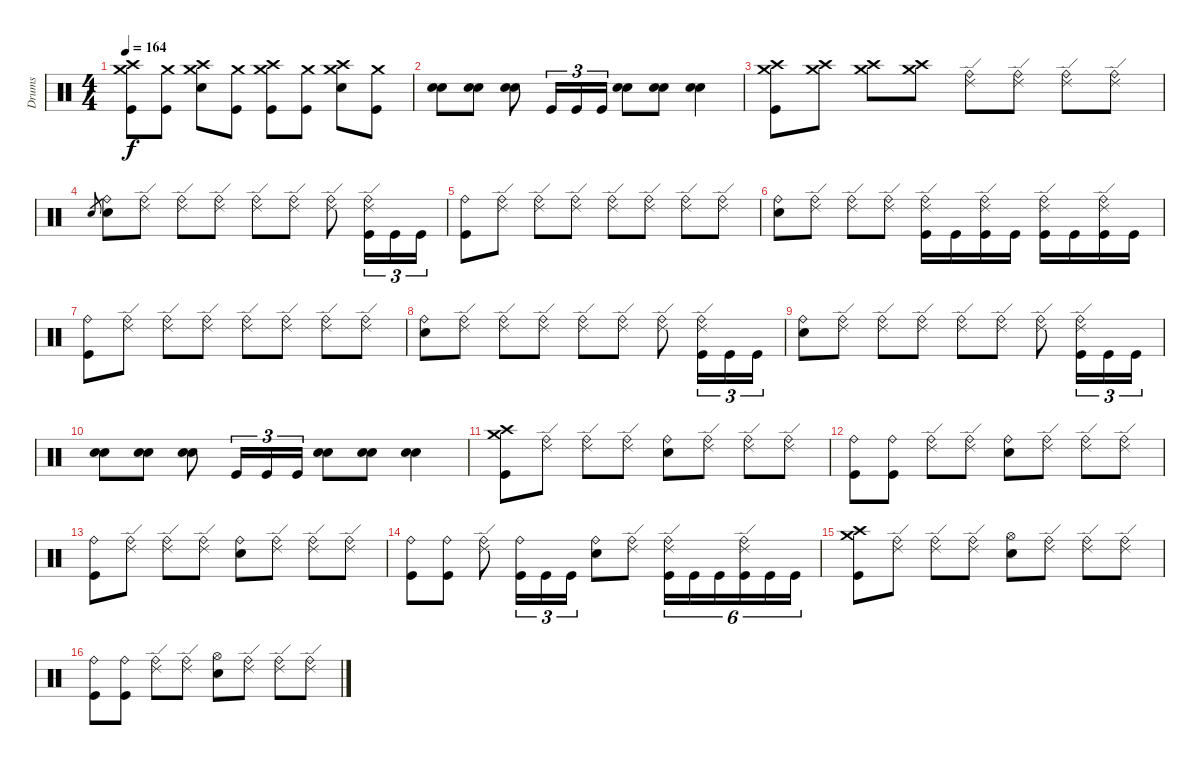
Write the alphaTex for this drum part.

\track ("Drums" "Drums") {instrument percussion}
\staff {score}
\articulation defaults
\ts (4 4)
\tempo 164
\clef neutral
\ks c
("Crash medium (hit)" "Kick (hit)" "Crash high (hit)").8{dy f} ("Crash medium (hit)" "Kick (hit)").8 ("Snare (hit) 2" "Crash medium (hit)" "Crash high (hit)").8 ("Crash medium (hit)" "Kick (hit)").8 ("Crash medium (hit)" "Kick (hit)" "Crash high (hit)").8 ("Crash medium (hit)" "Kick (hit)").8 ("Snare (hit) 2" "Crash medium (hit)" "Crash high (hit)").8 ("Crash medium (hit)" "Kick (hit)").8 |
("Snare (hit) 2" "Snare (hit) 2").8 ("Snare (hit) 2" "Snare (hit) 2").8 ("Snare (hit) 2" "Snare (hit) 2").8 "Kick (hit)".16{tu (3 2)} "Kick (hit)".16{tu (3 2)} "Kick (hit)".16{tu (3 2)} ("Snare (hit) 2" "Snare (hit) 2").8 ("Snare (hit) 2" "Snare (hit) 2").8 ("Snare (hit) 2" "Snare (hit) 2").4 |
("Crash medium (hit)" "Crash high (hit)" "Kick (hit)").8 ("Crash medium (hit)" "Crash high (hit)").8 ("Crash medium (hit)" "Crash high (hit)").8 ("Crash medium (hit)" "Crash high (hit)").8 ("Ride (edge) 2" "Ride (bell)").8 ("Ride (edge) 2" "Ride (bell)").8 ("Ride (edge) 2" "Ride (bell)").8 ("Ride (edge) 2" "Ride (bell)").8 |
"Snare (hit) 2".8{gr} ("Snare (hit) 2" "Ride (bell)").8 ("Ride (edge) 2" "Ride (bell)").8 ("Ride (edge) 2" "Ride (bell)").8 ("Ride (edge) 2" "Ride (bell)").8 ("Ride (edge) 2" "Ride (bell)").8 ("Ride (edge) 2" "Ride (bell)").8 ("Ride (edge) 2" "Ride (bell)").8 ("Ride (edge) 2" "Ride (bell)" "Kick (hit)").16{tu (3 2)} "Kick (hit)".16{tu (3 2)} "Kick (hit)".16{tu (3 2)} |
("Ride (bell)" "Kick (hit)").8 ("Ride (edge) 2" "Ride (bell)").8 ("Ride (edge) 2" "Ride (bell)").8 ("Ride (edge) 2" "Ride (bell)").8 ("Ride (edge) 2" "Ride (bell)").8 ("Ride (edge) 2" "Ride (bell)").8 ("Ride (edge) 2" "Ride (bell)").8 ("Ride (edge) 2" "Ride (bell)").8 |
("Snare (hit) 2" "Ride (bell)").8 ("Ride (edge) 2" "Ride (bell)").8 ("Ride (edge) 2" "Ride (bell)").8 ("Ride (edge) 2" "Ride (bell)").8 ("Ride (edge) 2" "Ride (bell)" "Kick (hit)").16 "Kick (hit)".16 ("Ride (edge) 2" "Ride (bell)" "Kick (hit)").16 "Kick (hit)".16 ("Ride (edge) 2" "Ride (bell)" "Kick (hit)").16 "Kick (hit)".16 ("Ride (edge) 2" "Ride (bell)" "Kick (hit)").16 "Kick (hit)".16 |
("Ride (bell)" "Kick (hit)").8 ("Ride (edge) 2" "Ride (bell)").8 ("Ride (edge) 2" "Ride (bell)").8 ("Ride (edge) 2" "Ride (bell)").8 ("Ride (edge) 2" "Ride (bell)").8 ("Ride (edge) 2" "Ride (bell)").8 ("Ride (edge) 2" "Ride (bell)").8 ("Ride (edge) 2" "Ride (bell)").8 |
("Snare (hit) 2" "Ride (bell)").8 ("Ride (edge) 2" "Ride (bell)").8 ("Ride (edge) 2" "Ride (bell)").8 ("Ride (edge) 2" "Ride (bell)").8 ("Ride (edge) 2" "Ride (bell)").8 ("Ride (edge) 2" "Ride (bell)").8 ("Ride (edge) 2" "Ride (bell)").8 ("Ride (edge) 2" "Ride (bell)" "Kick (hit)").16{tu (3 2)} "Kick (hit)".16{tu (3 2)} "Kick (hit)".16{tu (3 2)} |
("Snare (hit) 2" "Ride (bell)").8 ("Ride (edge) 2" "Ride (bell)").8 ("Ride (edge) 2" "Ride (bell)").8 ("Ride (edge) 2" "Ride (bell)").8 ("Ride (edge) 2" "Ride (bell)").8 ("Ride (edge) 2" "Ride (bell)").8 ("Ride (edge) 2" "Ride (bell)").8 ("Ride (edge) 2" "Ride (bell)" "Kick (hit)").16{tu (3 2)} "Kick (hit)".16{tu (3 2)} "Kick (hit)".16{tu (3 2)} |
("Snare (hit) 2" "Snare (hit) 2").8 ("Snare (hit) 2" "Snare (hit) 2").8 ("Snare (hit) 2" "Snare (hit) 2").8 "Kick (hit)".16{tu (3 2)} "Kick (hit)".16{tu (3 2)} "Kick (hit)".16{tu (3 2)} ("Snare (hit) 2" "Snare (hit) 2").8 ("Snare (hit) 2" "Snare (hit) 2").8 ("Snare (hit) 2" "Snare (hit) 2").4 |
("Crash high (hit)" "Kick (hit)" "Crash medium (hit)").8 ("Ride (edge) 2" "Ride (bell)").8 ("Ride (edge) 2" "Ride (bell)").8 ("Ride (edge) 2" "Ride (bell)").8 ("Snare (hit) 2" "Ride (bell)").8 ("Ride (edge) 2" "Ride (bell)").8 ("Ride (edge) 2" "Ride (bell)").8 ("Ride (edge) 2" "Ride (bell)").8 |
("Ride (bell)" "Kick (hit)").8 ("Ride (bell)" "Kick (hit)").8 ("Ride (edge) 2" "Ride (bell)").8 ("Ride (edge) 2" "Ride (bell)").8 ("Snare (hit) 2" "Ride (bell)").8 ("Ride (edge) 2" "Ride (bell)").8 ("Ride (edge) 2" "Ride (bell)").8 ("Ride (edge) 2" "Ride (bell)").8 |
("Ride (bell)" "Kick (hit)").8 ("Ride (edge) 2" "Ride (bell)").8 ("Ride (edge) 2" "Ride (bell)").8 ("Ride (edge) 2" "Ride (bell)").8 ("Snare (hit) 2" "Ride (bell)").8 ("Ride (edge) 2" "Ride (bell)").8 ("Ride (edge) 2" "Ride (bell)").8 ("Ride (edge) 2" "Ride (bell)").8 |
("Ride (bell)" "Kick (hit)").8 ("Ride (bell)" "Kick (hit)").8 ("Ride (edge) 2" "Ride (bell)").8 ("Ride (bell)" "Kick (hit)").16{tu (3 2)} "Kick (hit)".16{tu (3 2)} "Kick (hit)".16{tu (3 2)} ("Snare (hit) 2" "Ride (bell)").8 ("Ride (edge) 2" "Ride (bell)").8 ("Ride (edge) 2" "Ride (bell)" "Kick (hit)").16{tu (6 4)} "Kick (hit)".16{tu (6 4)} "Kick (hit)".16{tu (6 4)} ("Ride (edge) 2" "Ride (bell)" "Kick (hit)").16{tu (6 4)} "Kick (hit)".16{tu (6 4)} "Kick (hit)".16{tu (6 4)} |
("Crash high (hit)" "Kick (hit)" "Crash medium (hit)").8 ("Ride (edge) 2" "Ride (bell)").8 ("Ride (edge) 2" "Ride (bell)").8 ("Ride (edge) 2" "Ride (bell)").8 ("Snare (hit) 2" "Hi-Hat (open)").8 ("Ride (edge) 2" "Ride (bell)").8 ("Ride (edge) 2" "Ride (bell)").8 ("Ride (edge) 2" "Ride (bell)").8 |
("Ride (bell)" "Kick (hit)").8 ("Ride (bell)" "Kick (hit)").8 ("Ride (edge) 2" "Ride (bell)").8 ("Ride (edge) 2" "Ride (bell)").8 ("Snare (hit) 2" "Hi-Hat (open)").8 ("Ride (edge) 2" "Ride (bell)").8 ("Ride (edge) 2" "Ride (bell)").8 ("Ride (edge) 2" "Ride (bell)").8
